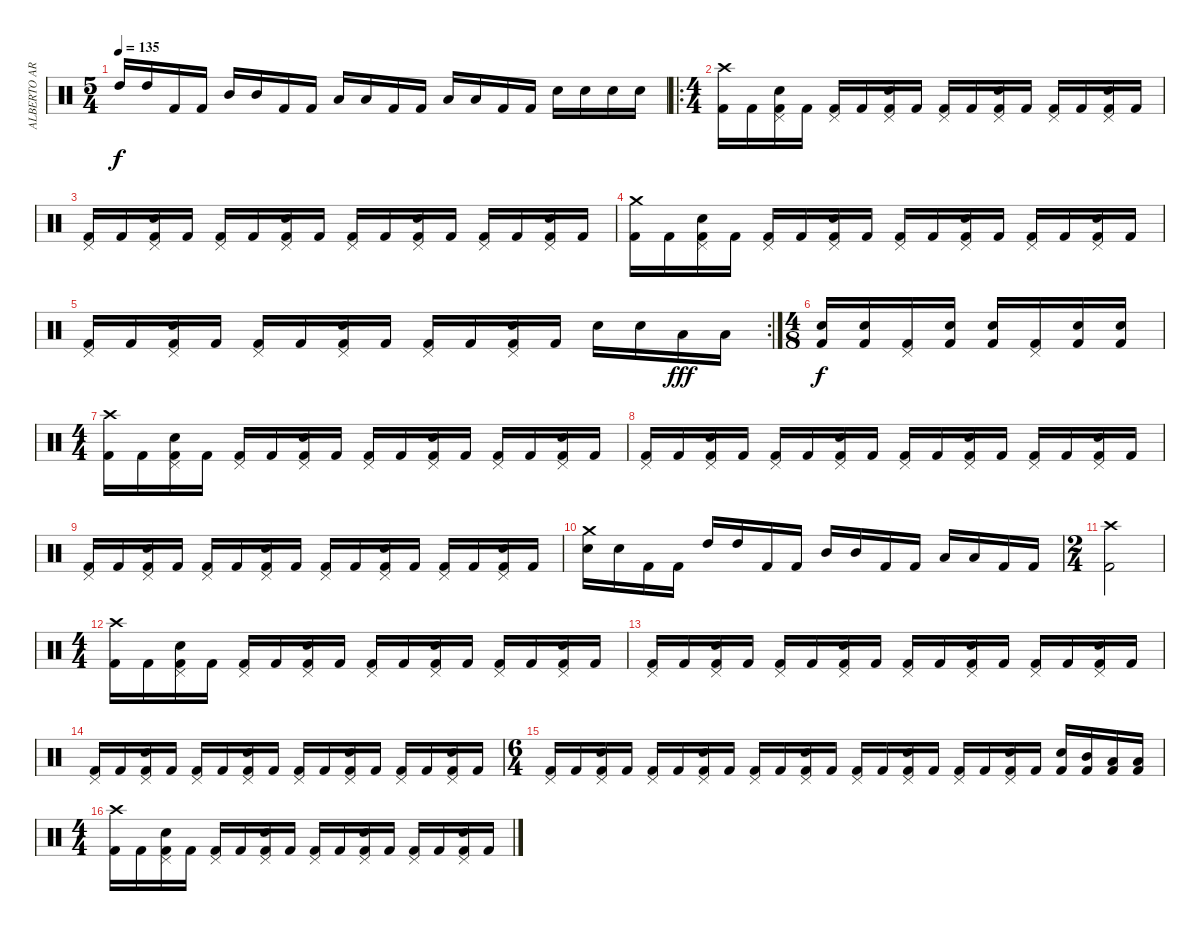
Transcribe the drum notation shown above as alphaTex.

\track ("ALBERTO ARDINES" "ALBERTO AR") {instrument percussion}
\staff {score}
\articulation defaults
\ts (5 4)
\tempo 135
\clef neutral
\ks c "High Tom (hit)".16{dy f} "High Tom (hit)".16 "Kick (hit) 2".16 "Kick (hit) 2".16 "Mid Tom (hit)".16 "Mid Tom (hit)".16 "Kick (hit) 2".16 "Kick (hit) 2".16 "Low Tom (hit)".16 "Low Tom (hit)".16 "Kick (hit) 2".16 "Kick (hit) 2".16 "Low Floor Tom (hit)".16 "Low Floor Tom (hit)".16 "Kick (hit) 2".16 "Kick (hit) 2".16 "Electric Snare (hit)".16 "Electric Snare (hit)".16 "Electric Snare (hit)".16 "Electric Snare (hit)".16
|
\ro
\ts (4 4)
("Crash high (hit)" "Kick (hit) 2").16 "Kick (hit) 2".16 ("Pedal Hi-Hat (hit)" "Electric Snare (hit)" "Kick (hit) 2").16 "Kick (hit) 2".16 ("Pedal Hi-Hat (hit)" "Kick (hit) 2").16 "Kick (hit) 2".16 ("Pedal Hi-Hat (hit)" "Electric Snare (hit)" "Kick (hit) 2").16 "Kick (hit) 2".16 ("Pedal Hi-Hat (hit)" "Kick (hit) 2").16 "Kick (hit) 2".16 ("Pedal Hi-Hat (hit)" "Electric Snare (hit)" "Kick (hit) 2").16 "Kick (hit) 2".16 ("Pedal Hi-Hat (hit)" "Kick (hit) 2").16 "Kick (hit) 2".16 ("Pedal Hi-Hat (hit)" "Electric Snare (hit)" "Kick (hit) 2").16 "Kick (hit) 2".16 |
("Pedal Hi-Hat (hit)" "Kick (hit) 2").16 "Kick (hit) 2".16 ("Pedal Hi-Hat (hit)" "Electric Snare (hit)" "Kick (hit) 2").16 "Kick (hit) 2".16 ("Pedal Hi-Hat (hit)" "Kick (hit) 2").16 "Kick (hit) 2".16 ("Pedal Hi-Hat (hit)" "Electric Snare (hit)" "Kick (hit) 2").16 "Kick (hit) 2".16 ("Pedal Hi-Hat (hit)" "Kick (hit) 2").16 "Kick (hit) 2".16 ("Pedal Hi-Hat (hit)" "Electric Snare (hit)" "Kick (hit) 2").16 "Kick (hit) 2".16 ("Pedal Hi-Hat (hit)" "Kick (hit) 2").16 "Kick (hit) 2".16 ("Pedal Hi-Hat (hit)" "Electric Snare (hit)" "Kick (hit) 2").16 "Kick (hit) 2".16 |
("Crash medium (hit)" "Kick (hit) 2").16 "Kick (hit) 2".16 ("Pedal Hi-Hat (hit)" "Electric Snare (hit)" "Kick (hit) 2").16 "Kick (hit) 2".16 ("Pedal Hi-Hat (hit)" "Kick (hit) 2").16 "Kick (hit) 2".16 ("Pedal Hi-Hat (hit)" "Electric Snare (hit)" "Kick (hit) 2").16 "Kick (hit) 2".16 ("Pedal Hi-Hat (hit)" "Kick (hit) 2").16 "Kick (hit) 2".16 ("Pedal Hi-Hat (hit)" "Electric Snare (hit)" "Kick (hit) 2").16 "Kick (hit) 2".16 ("Pedal Hi-Hat (hit)" "Kick (hit) 2").16 "Kick (hit) 2".16 ("Pedal Hi-Hat (hit)" "Electric Snare (hit)" "Kick (hit) 2").16 "Kick (hit) 2".16 |
\rc 2
("Pedal Hi-Hat (hit)" "Kick (hit) 2").16 "Kick (hit) 2".16 ("Pedal Hi-Hat (hit)" "Electric Snare (hit)" "Kick (hit) 2").16 "Kick (hit) 2".16 ("Pedal Hi-Hat (hit)" "Kick (hit) 2").16 "Kick (hit) 2".16 ("Pedal Hi-Hat (hit)" "Electric Snare (hit)" "Kick (hit) 2").16 "Kick (hit) 2".16 ("Pedal Hi-Hat (hit)" "Kick (hit) 2").16 "Kick (hit) 2".16 ("Pedal Hi-Hat (hit)" "Electric Snare (hit)" "Kick (hit) 2").16 "Kick (hit) 2".16 "Electric Snare (hit)".16 "Electric Snare (hit)".16 "Low Tom (hit)".16{dy fff} "Low Tom (hit)".16 |
\ts (4 8)
("Electric Snare (hit)" "Kick (hit) 2").16{dy f} ("Electric Snare (hit)" "Kick (hit) 2").16 ("Pedal Hi-Hat (hit)" "Kick (hit) 2").16 ("Electric Snare (hit)" "Kick (hit) 2").16 ("Electric Snare (hit)" "Kick (hit) 2").16 ("Pedal Hi-Hat (hit)" "Kick (hit) 2").16 ("Electric Snare (hit)" "Kick (hit) 2").16 ("Electric Snare (hit)" "Kick (hit) 2").16 |
\ts (4 4)
("Crash high (hit)" "Kick (hit) 2").16 "Kick (hit) 2".16 ("Pedal Hi-Hat (hit)" "Electric Snare (hit)" "Kick (hit) 2").16 "Kick (hit) 2".16 ("Pedal Hi-Hat (hit)" "Kick (hit) 2").16 "Kick (hit) 2".16 ("Pedal Hi-Hat (hit)" "Electric Snare (hit)" "Kick (hit) 2").16 "Kick (hit) 2".16 ("Pedal Hi-Hat (hit)" "Kick (hit) 2").16 "Kick (hit) 2".16 ("Pedal Hi-Hat (hit)" "Electric Snare (hit)" "Kick (hit) 2").16 "Kick (hit) 2".16 ("Pedal Hi-Hat (hit)" "Kick (hit) 2").16 "Kick (hit) 2".16 ("Pedal Hi-Hat (hit)" "Electric Snare (hit)" "Kick (hit) 2").16 "Kick (hit) 2".16 |
("Pedal Hi-Hat (hit)" "Kick (hit) 2").16 "Kick (hit) 2".16 ("Pedal Hi-Hat (hit)" "Electric Snare (hit)" "Kick (hit) 2").16 "Kick (hit) 2".16 ("Pedal Hi-Hat (hit)" "Kick (hit) 2").16 "Kick (hit) 2".16 ("Pedal Hi-Hat (hit)" "Electric Snare (hit)" "Kick (hit) 2").16 "Kick (hit) 2".16 ("Pedal Hi-Hat (hit)" "Kick (hit) 2").16 "Kick (hit) 2".16 ("Pedal Hi-Hat (hit)" "Electric Snare (hit)" "Kick (hit) 2").16 "Kick (hit) 2".16 ("Pedal Hi-Hat (hit)" "Kick (hit) 2").16 "Kick (hit) 2".16 ("Pedal Hi-Hat (hit)" "Electric Snare (hit)" "Kick (hit) 2").16 "Kick (hit) 2".16 |
("Pedal Hi-Hat (hit)" "Kick (hit) 2").16 "Kick (hit) 2".16 ("Pedal Hi-Hat (hit)" "Electric Snare (hit)" "Kick (hit) 2").16 "Kick (hit) 2".16 ("Pedal Hi-Hat (hit)" "Kick (hit) 2").16 "Kick (hit) 2".16 ("Pedal Hi-Hat (hit)" "Electric Snare (hit)" "Kick (hit) 2").16 "Kick (hit) 2".16 ("Pedal Hi-Hat (hit)" "Kick (hit) 2").16 "Kick (hit) 2".16 ("Pedal Hi-Hat (hit)" "Electric Snare (hit)" "Kick (hit) 2").16 "Kick (hit) 2".16 ("Pedal Hi-Hat (hit)" "Kick (hit) 2").16 "Kick (hit) 2".16 ("Pedal Hi-Hat (hit)" "Electric Snare (hit)" "Kick (hit) 2").16 "Kick (hit) 2".16 |
("Crash medium (hit)" "Electric Snare (hit)").16 "Electric Snare (hit)".16 "Kick (hit) 2".16 "Kick (hit) 2".16 "High Tom (hit)".16 "High Tom (hit)".16 "Kick (hit) 2".16 "Kick (hit) 2".16 "Mid Tom (hit)".16 "Mid Tom (hit)".16 "Kick (hit) 2".16 "Kick (hit) 2".16 "Low Tom (hit)".16 "Low Tom (hit)".16 "Kick (hit) 2".16 "Kick (hit) 2".16 |
\ts (2 4)
("Crash high (hit)" "Kick (hit) 2").2 |
\ts (4 4)
("Crash high (hit)" "Kick (hit) 2").16 "Kick (hit) 2".16 ("Pedal Hi-Hat (hit)" "Electric Snare (hit)" "Kick (hit) 2").16 "Kick (hit) 2".16 ("Pedal Hi-Hat (hit)" "Kick (hit) 2").16 "Kick (hit) 2".16 ("Pedal Hi-Hat (hit)" "Electric Snare (hit)" "Kick (hit) 2").16 "Kick (hit) 2".16 ("Pedal Hi-Hat (hit)" "Kick (hit) 2").16 "Kick (hit) 2".16 ("Pedal Hi-Hat (hit)" "Electric Snare (hit)" "Kick (hit) 2").16 "Kick (hit) 2".16 ("Pedal Hi-Hat (hit)" "Kick (hit) 2").16 "Kick (hit) 2".16 ("Pedal Hi-Hat (hit)" "Electric Snare (hit)" "Kick (hit) 2").16 "Kick (hit) 2".16 |
("Pedal Hi-Hat (hit)" "Kick (hit) 2").16 "Kick (hit) 2".16 ("Pedal Hi-Hat (hit)" "Electric Snare (hit)" "Kick (hit) 2").16 "Kick (hit) 2".16 ("Pedal Hi-Hat (hit)" "Kick (hit) 2").16 "Kick (hit) 2".16 ("Pedal Hi-Hat (hit)" "Electric Snare (hit)" "Kick (hit) 2").16 "Kick (hit) 2".16 ("Pedal Hi-Hat (hit)" "Kick (hit) 2").16 "Kick (hit) 2".16 ("Pedal Hi-Hat (hit)" "Electric Snare (hit)" "Kick (hit) 2").16 "Kick (hit) 2".16 ("Pedal Hi-Hat (hit)" "Kick (hit) 2").16 "Kick (hit) 2".16 ("Pedal Hi-Hat (hit)" "Electric Snare (hit)" "Kick (hit) 2").16 "Kick (hit) 2".16 |
("Pedal Hi-Hat (hit)" "Kick (hit) 2").16 "Kick (hit) 2".16 ("Pedal Hi-Hat (hit)" "Electric Snare (hit)" "Kick (hit) 2").16 "Kick (hit) 2".16 ("Pedal Hi-Hat (hit)" "Kick (hit) 2").16 "Kick (hit) 2".16 ("Pedal Hi-Hat (hit)" "Electric Snare (hit)" "Kick (hit) 2").16 "Kick (hit) 2".16 ("Pedal Hi-Hat (hit)" "Kick (hit) 2").16 "Kick (hit) 2".16 ("Pedal Hi-Hat (hit)" "Electric Snare (hit)" "Kick (hit) 2").16 "Kick (hit) 2".16 ("Pedal Hi-Hat (hit)" "Kick (hit) 2").16 "Kick (hit) 2".16 ("Pedal Hi-Hat (hit)" "Electric Snare (hit)" "Kick (hit) 2").16 "Kick (hit) 2".16 |
\ts (6 4)
("Pedal Hi-Hat (hit)" "Kick (hit) 2").16 "Kick (hit) 2".16 ("Pedal Hi-Hat (hit)" "Electric Snare (hit)" "Kick (hit) 2").16 "Kick (hit) 2".16 ("Pedal Hi-Hat (hit)" "Kick (hit) 2").16 "Kick (hit) 2".16 ("Pedal Hi-Hat (hit)" "Electric Snare (hit)" "Kick (hit) 2").16 "Kick (hit) 2".16 ("Pedal Hi-Hat (hit)" "Kick (hit) 2").16 "Kick (hit) 2".16 ("Pedal Hi-Hat (hit)" "Electric Snare (hit)" "Kick (hit) 2").16 "Kick (hit) 2".16 ("Pedal Hi-Hat (hit)" "Kick (hit) 2").16 "Kick (hit) 2".16 ("Pedal Hi-Hat (hit)" "Electric Snare (hit)" "Kick (hit) 2").16 "Kick (hit) 2".16 ("Pedal Hi-Hat (hit)" "Kick (hit) 2").16 "Kick (hit) 2".16 ("Pedal Hi-Hat (hit)" "Electric Snare (hit)" "Kick (hit) 2").16 "Kick (hit) 2".16 ("Electric Snare (hit)" "Kick (hit) 2").16 ("Mid Tom (hit)" "Kick (hit) 2").16 ("Low Tom (hit)" "Kick (hit) 2").16 ("Low Tom (hit)" "Kick (hit) 2").16 |
\ts (4 4)
("Crash high (hit)" "Kick (hit) 2").16 "Kick (hit) 2".16 ("Pedal Hi-Hat (hit)" "Electric Snare (hit)" "Kick (hit) 2").16 "Kick (hit) 2".16 ("Pedal Hi-Hat (hit)" "Kick (hit) 2").16 "Kick (hit) 2".16 ("Pedal Hi-Hat (hit)" "Electric Snare (hit)" "Kick (hit) 2").16 "Kick (hit) 2".16 ("Pedal Hi-Hat (hit)" "Kick (hit) 2").16 "Kick (hit) 2".16 ("Pedal Hi-Hat (hit)" "Electric Snare (hit)" "Kick (hit) 2").16 "Kick (hit) 2".16 ("Pedal Hi-Hat (hit)" "Kick (hit) 2").16 "Kick (hit) 2".16 ("Pedal Hi-Hat (hit)" "Electric Snare (hit)" "Kick (hit) 2").16 "Kick (hit) 2".16
